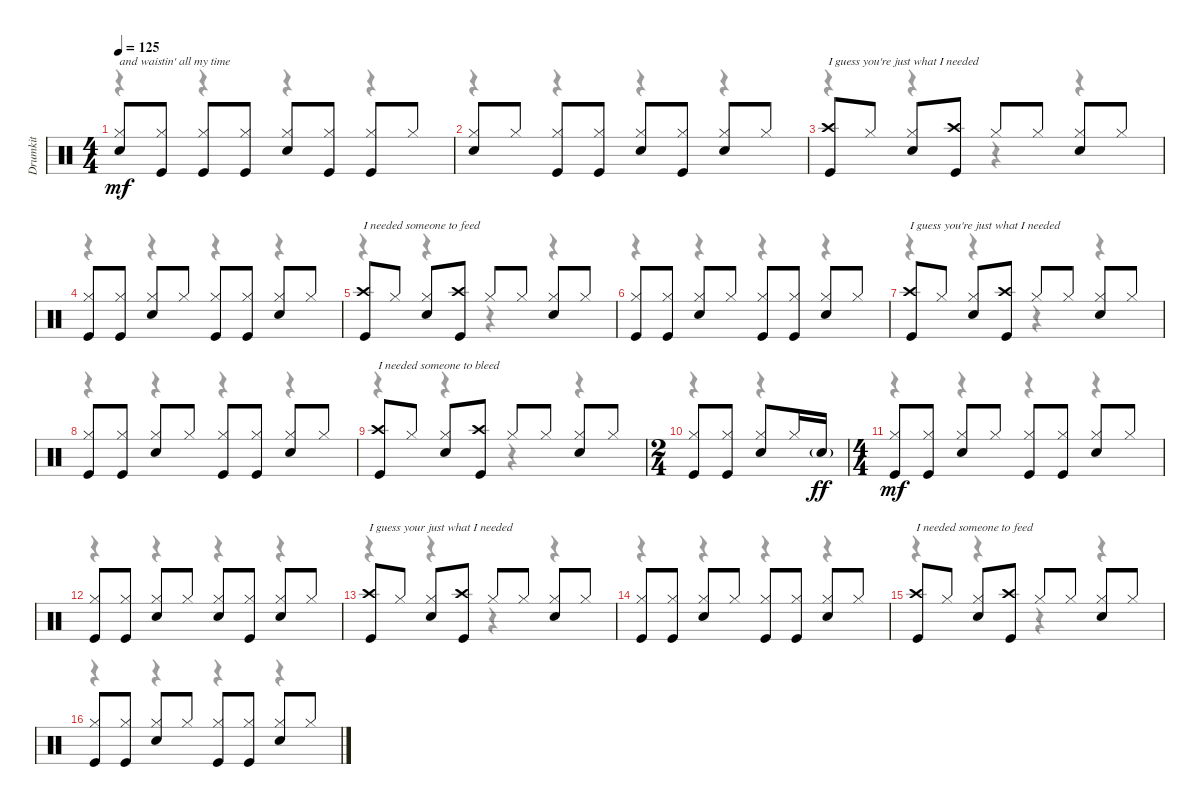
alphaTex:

\track ("Drumkit" "Drumkit") {instrument percussion}
\staff {score}
\articulation defaults
\voice
\ts (4 4)
\tempo 125
\clef neutral
\ks c
("Hi-Hat (closed)" "Snare (hit) 2").8{txt "and waistin' all my time" dy mf} ("Hi-Hat (closed)" "Kick (hit)").8 ("Hi-Hat (closed)" "Kick (hit)").8 ("Hi-Hat (closed)" "Kick (hit)").8 ("Hi-Hat (closed)" "Snare (hit) 2").8 ("Hi-Hat (closed)" "Kick (hit)").8 ("Hi-Hat (closed)" "Kick (hit)").8 "Hi-Hat (closed)".8 |
("Hi-Hat (closed)" "Snare (hit) 2").8 "Hi-Hat (closed)".8 ("Hi-Hat (closed)" "Kick (hit)").8 ("Hi-Hat (closed)" "Kick (hit)").8 ("Hi-Hat (closed)" "Snare (hit) 2").8 ("Hi-Hat (closed)" "Kick (hit)").8 ("Hi-Hat (closed)" "Snare (hit) 2").8 "Hi-Hat (closed)".8 |
("Kick (hit)" "Crash high (hit)").8{txt "I guess you're just what I needed"} "Hi-Hat (closed)".8 ("Hi-Hat (closed)" "Snare (hit) 2").8 ("Crash high (hit)" "Kick (hit)").8 "Hi-Hat (closed)".8 "Hi-Hat (closed)".8 ("Hi-Hat (closed)" "Snare (hit) 2").8 "Hi-Hat (closed)".8 |
("Hi-Hat (closed)" "Kick (hit)").8 ("Hi-Hat (closed)" "Kick (hit)").8 ("Hi-Hat (closed)" "Snare (hit) 2").8 "Hi-Hat (closed)".8 ("Hi-Hat (closed)" "Kick (hit)").8 ("Hi-Hat (closed)" "Kick (hit)").8 ("Hi-Hat (closed)" "Snare (hit) 2").8 "Hi-Hat (closed)".8 |
("Kick (hit)" "Crash high (hit)").8{txt "I needed someone to feed"} "Hi-Hat (closed)".8 ("Hi-Hat (closed)" "Snare (hit) 2").8 ("Crash high (hit)" "Kick (hit)").8 "Hi-Hat (closed)".8 "Hi-Hat (closed)".8 ("Hi-Hat (closed)" "Snare (hit) 2").8 "Hi-Hat (closed)".8 |
("Hi-Hat (closed)" "Kick (hit)").8 ("Hi-Hat (closed)" "Kick (hit)").8 ("Hi-Hat (closed)" "Snare (hit) 2").8 "Hi-Hat (closed)".8 ("Hi-Hat (closed)" "Kick (hit)").8 ("Hi-Hat (closed)" "Kick (hit)").8 ("Hi-Hat (closed)" "Snare (hit) 2").8 "Hi-Hat (closed)".8 |
("Kick (hit)" "Crash high (hit)").8{txt "I guess you're just what I needed"} "Hi-Hat (closed)".8 ("Hi-Hat (closed)" "Snare (hit) 2").8 ("Crash high (hit)" "Kick (hit)").8 "Hi-Hat (closed)".8 "Hi-Hat (closed)".8 ("Hi-Hat (closed)" "Snare (hit) 2").8 "Hi-Hat (closed)".8 |
("Hi-Hat (closed)" "Kick (hit)").8 ("Hi-Hat (closed)" "Kick (hit)").8 ("Hi-Hat (closed)" "Snare (hit) 2").8 "Hi-Hat (closed)".8 ("Hi-Hat (closed)" "Kick (hit)").8 ("Hi-Hat (closed)" "Kick (hit)").8 ("Hi-Hat (closed)" "Snare (hit) 2").8 "Hi-Hat (closed)".8 |
("Kick (hit)" "Crash high (hit)").8{txt "I needed someone to bleed"} "Hi-Hat (closed)".8 ("Hi-Hat (closed)" "Snare (hit) 2").8 ("Crash high (hit)" "Kick (hit)").8 "Hi-Hat (closed)".8 "Hi-Hat (closed)".8 ("Hi-Hat (closed)" "Snare (hit) 2").8 "Hi-Hat (closed)".8 |
\ts (2 4)
("Hi-Hat (closed)" "Kick (hit)").8 ("Hi-Hat (closed)" "Kick (hit)").8 ("Hi-Hat (closed)" "Snare (hit) 2").8 "Hi-Hat (closed)".16 "Snare (hit) 2"{g}.16{dy ff} |
\ts (4 4)
("Hi-Hat (closed)" "Kick (hit)").8{dy mf} ("Hi-Hat (closed)" "Kick (hit)").8 ("Hi-Hat (closed)" "Snare (hit) 2").8 "Hi-Hat (closed)".8 ("Hi-Hat (closed)" "Kick (hit)").8 ("Hi-Hat (closed)" "Kick (hit)").8 ("Hi-Hat (closed)" "Snare (hit) 2").8 "Hi-Hat (closed)".8 |
("Hi-Hat (closed)" "Kick (hit)").8 ("Hi-Hat (closed)" "Kick (hit)").8 ("Hi-Hat (closed)" "Snare (hit) 2").8 "Hi-Hat (closed)".8 ("Snare (hit) 2" "Hi-Hat (closed)").8 ("Kick (hit)" "Hi-Hat (closed)").8 ("Snare (hit) 2" "Hi-Hat (closed)").8 "Hi-Hat (closed)".8 |
("Kick (hit)" "Crash high (hit)").8{txt "I guess your just what I needed"} "Hi-Hat (closed)".8 ("Hi-Hat (closed)" "Snare (hit) 2").8 ("Crash high (hit)" "Kick (hit)").8 "Hi-Hat (closed)".8 "Hi-Hat (closed)".8 ("Hi-Hat (closed)" "Snare (hit) 2").8 "Hi-Hat (closed)".8 |
("Hi-Hat (closed)" "Kick (hit)").8 ("Hi-Hat (closed)" "Kick (hit)").8 ("Hi-Hat (closed)" "Snare (hit) 2").8 "Hi-Hat (closed)".8 ("Hi-Hat (closed)" "Kick (hit)").8 ("Hi-Hat (closed)" "Kick (hit)").8 ("Hi-Hat (closed)" "Snare (hit) 2").8 "Hi-Hat (closed)".8 |
("Kick (hit)" "Crash high (hit)").8{txt "I needed someone to feed"} "Hi-Hat (closed)".8 ("Hi-Hat (closed)" "Snare (hit) 2").8 ("Crash high (hit)" "Kick (hit)").8 "Hi-Hat (closed)".8 "Hi-Hat (closed)".8 ("Hi-Hat (closed)" "Snare (hit) 2").8 "Hi-Hat (closed)".8 |
("Hi-Hat (closed)" "Kick (hit)").8 ("Hi-Hat (closed)" "Kick (hit)").8 ("Hi-Hat (closed)" "Snare (hit) 2").8 "Hi-Hat (closed)".8 ("Hi-Hat (closed)" "Kick (hit)").8 ("Hi-Hat (closed)" "Kick (hit)").8 ("Hi-Hat (closed)" "Snare (hit) 2").8 "Hi-Hat (closed)".8
\voice
\clef neutral
\ottava regular
\simile none
\ks c
r.4{dy f} r.4 r.4 r.4 |
r.4 r.4 r.4 r.4 |
r.4 r.4 r.4 r.4 |
r.4 r.4 r.4 r.4 |
r.4 r.4 r.4 r.4 |
r.4 r.4 r.4 r.4 |
r.4 r.4 r.4 r.4 |
r.4 r.4 r.4 r.4 |
r.4 r.4 r.4 r.4 |
r.4 r.4 |
r.4 r.4 r.4 r.4 |
r.4 r.4 r.4 r.4 |
r.4 r.4 r.4 r.4 |
r.4 r.4 r.4 r.4 |
r.4 r.4 r.4 r.4 |
r.4 r.4 r.4 r.4
